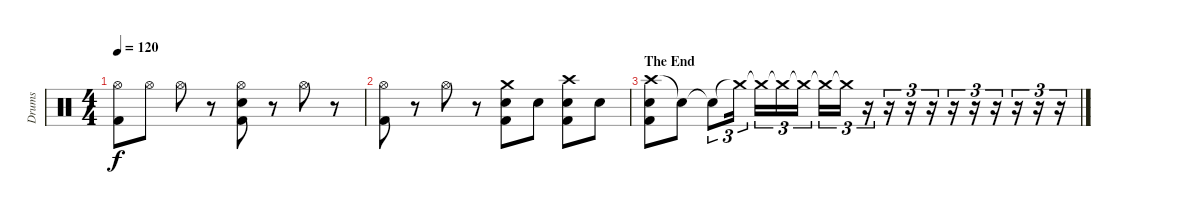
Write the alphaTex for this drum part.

\track ("Drums" "Drums") {instrument percussion}
\staff {score}
\articulation defaults
\ts (4 4)
\tempo 120
\clef neutral
\ks c
("Hi-Hat (open)" "Kick (hit) 2").8{dy f} "Hi-Hat (open)".8 "Hi-Hat (open)".8 r.8 ("Hi-Hat (open)" "Snare (hit) 2" "Kick (hit) 2").8 r.8 "Hi-Hat (open)".8 r.8 |
("Hi-Hat (open)" "Kick (hit) 2").8 r.8 "Hi-Hat (open)".8 r.8 ("Crash medium (hit)" "Snare (hit) 2" "Kick (hit) 2").8 "Snare (hit) 2".8 ("Crash high (hit)" "Snare (hit) 2" "Kick (hit) 2").8 "Snare (hit) 2".8 |
\section ("" "The End")
("Crash high (hit)" "Snare (hit) 2" "Kick (hit) 2").8 "Snare (hit)"{t}.8 "Snare (hit)"{t}.8{tu (3 2)} "Crash medium (hit)"{t}.16{tu (3 2)} "Crash medium (hit)"{t}.16{tu (3 2)} "Crash medium (hit)"{t}.16{tu (3 2)} "Crash medium (hit)"{t}.16{tu (3 2)} "Crash medium (hit)"{t}.16{tu (3 2)} "Crash medium (hit)"{t}.16{tu (3 2)} r.16{tu (3 2)} r.16{tu (3 2)} r.16{tu (3 2)} r.16{tu (3 2)} r.16{tu (3 2)} r.16{tu (3 2)} r.16{tu (3 2)} r.16{tu (3 2)} r.16{tu (3 2)} r.16{tu (3 2)}
